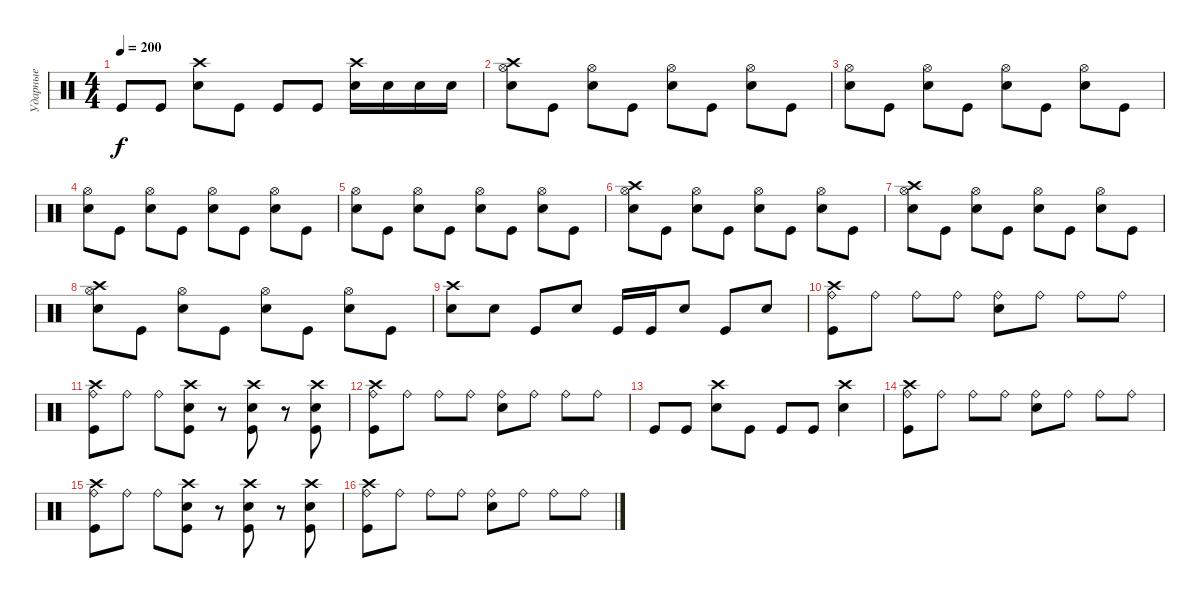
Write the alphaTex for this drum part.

\track ("Ударные" "Ударные") {instrument percussion}
\staff {score}
\articulation defaults
\ts (4 4)
\tempo 200
\clef neutral
\ks c "Kick (hit)".8{dy f} "Kick (hit)".8
("Electric Snare (hit)" "Crash high (hit)").8 "Kick (hit)".8 "Kick (hit)".8 "Kick (hit)".8 ("Electric Snare (hit)" "Crash high (hit)").16 "Electric Snare (hit)".16 "Electric Snare (hit)".16 "Electric Snare (hit)".16 |
("Hi-Hat (open)" "Electric Snare (hit)" "Crash high (hit)").8 "Kick (hit)".8 ("Hi-Hat (open)" "Electric Snare (hit)").8 "Kick (hit)".8 ("Hi-Hat (open)" "Electric Snare (hit)").8 "Kick (hit)".8 ("Hi-Hat (open)" "Electric Snare (hit)").8 "Kick (hit)".8 |
("Hi-Hat (open)" "Electric Snare (hit)").8 "Kick (hit)".8 ("Hi-Hat (open)" "Electric Snare (hit)").8 "Kick (hit)".8 ("Hi-Hat (open)" "Electric Snare (hit)").8 "Kick (hit)".8 ("Hi-Hat (open)" "Electric Snare (hit)").8 "Kick (hit)".8 |
("Hi-Hat (open)" "Electric Snare (hit)").8 "Kick (hit)".8 ("Hi-Hat (open)" "Electric Snare (hit)").8 "Kick (hit)".8 ("Hi-Hat (open)" "Electric Snare (hit)").8 "Kick (hit)".8 ("Hi-Hat (open)" "Electric Snare (hit)").8 "Kick (hit)".8 |
("Hi-Hat (open)" "Electric Snare (hit)").8 "Kick (hit)".8 ("Hi-Hat (open)" "Electric Snare (hit)").8 "Kick (hit)".8 ("Hi-Hat (open)" "Electric Snare (hit)").8 "Kick (hit)".8 ("Hi-Hat (open)" "Electric Snare (hit)").8 "Kick (hit)".8 |
("Hi-Hat (open)" "Electric Snare (hit)" "Crash high (hit)").8 "Kick (hit)".8 ("Hi-Hat (open)" "Electric Snare (hit)").8 "Kick (hit)".8 ("Hi-Hat (open)" "Electric Snare (hit)").8 "Kick (hit)".8 ("Hi-Hat (open)" "Electric Snare (hit)").8 "Kick (hit)".8 |
("Hi-Hat (open)" "Electric Snare (hit)" "Crash high (hit)").8 "Kick (hit)".8 ("Hi-Hat (open)" "Electric Snare (hit)").8 "Kick (hit)".8 ("Hi-Hat (open)" "Electric Snare (hit)").8 "Kick (hit)".8 ("Hi-Hat (open)" "Electric Snare (hit)").8 "Kick (hit)".8 |
("Hi-Hat (open)" "Electric Snare (hit)" "Crash high (hit)").8 "Kick (hit)".8 ("Hi-Hat (open)" "Electric Snare (hit)").8 "Kick (hit)".8 ("Hi-Hat (open)" "Electric Snare (hit)").8 "Kick (hit)".8 ("Hi-Hat (open)" "Electric Snare (hit)").8 "Kick (hit)".8 |
("Electric Snare (hit)" "Crash high (hit)").8 "Electric Snare (hit)".8 "Kick (hit)".8 "Electric Snare (hit)".8 "Kick (hit)".16 "Kick (hit)".16 "Electric Snare (hit)".8 "Kick (hit)".8 "Electric Snare (hit)".8 |
("Ride (bell)" "Crash high (hit)" "Kick (hit)").8 "Ride (bell)".8 "Ride (bell)".8 "Ride (bell)".8 ("Ride (bell)" "Electric Snare (hit)").8 "Ride (bell)".8 "Ride (bell)".8 "Ride (bell)".8 |
("Ride (bell)" "Crash high (hit)" "Kick (hit)").8 "Ride (bell)".8 "Ride (bell)".8 ("Electric Snare (hit)" "Crash high (hit)" "Kick (hit)").8 r.8 ("Electric Snare (hit)" "Crash high (hit)" "Kick (hit)").8 r.8 ("Electric Snare (hit)" "Crash high (hit)" "Kick (hit)").8 |
("Ride (bell)" "Crash high (hit)" "Kick (hit)").8 "Ride (bell)".8 "Ride (bell)".8 "Ride (bell)".8 ("Ride (bell)" "Electric Snare (hit)").8 "Ride (bell)".8 "Ride (bell)".8 "Ride (bell)".8 |
"Kick (hit)".8 "Kick (hit)".8 ("Electric Snare (hit)" "Crash high (hit)").8 "Kick (hit)".8 "Kick (hit)".8 "Kick (hit)".8 ("Electric Snare (hit)" "Crash high (hit)").4 |
("Ride (bell)" "Crash high (hit)" "Kick (hit)").8 "Ride (bell)".8 "Ride (bell)".8 "Ride (bell)".8 ("Ride (bell)" "Electric Snare (hit)").8 "Ride (bell)".8 "Ride (bell)".8 "Ride (bell)".8 |
("Ride (bell)" "Crash high (hit)" "Kick (hit)").8 "Ride (bell)".8 "Ride (bell)".8 ("Electric Snare (hit)" "Crash high (hit)" "Kick (hit)").8 r.8 ("Electric Snare (hit)" "Crash high (hit)" "Kick (hit)").8 r.8 ("Electric Snare (hit)" "Crash high (hit)" "Kick (hit)").8 |
("Ride (bell)" "Crash high (hit)" "Kick (hit)").8 "Ride (bell)".8 "Ride (bell)".8 "Ride (bell)".8 ("Ride (bell)" "Electric Snare (hit)").8 "Ride (bell)".8 "Ride (bell)".8 "Ride (bell)".8
